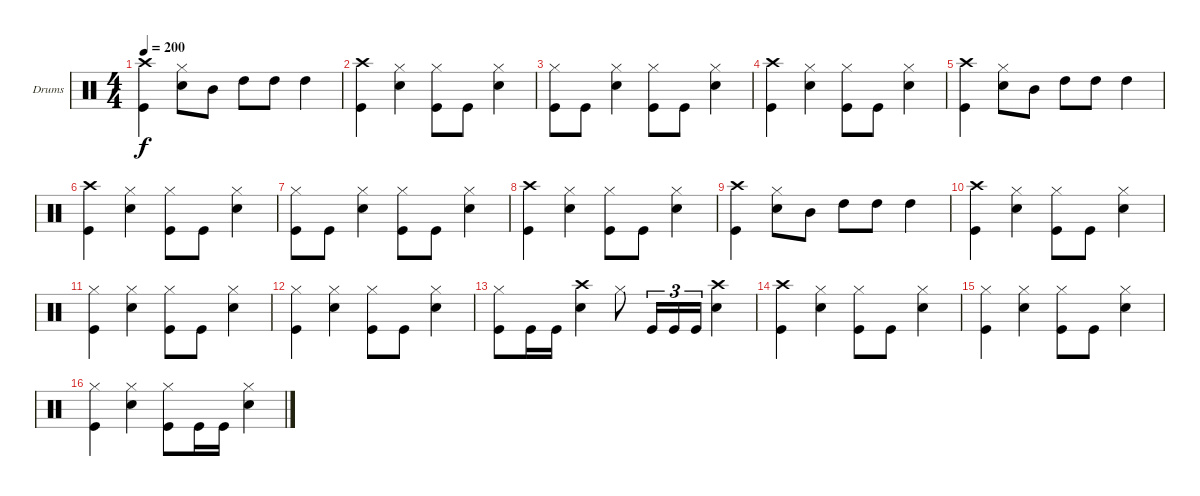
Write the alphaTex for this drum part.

\defaultSystemsLayout 4
\bracketExtendMode groupsimilarinstruments
\firstSystemTrackNameOrientation horizontal
\otherSystemsTrackNameOrientation horizontal
\track ("Drums" "Drums") {instrument percussion}
\staff {score}
\articulation defaults
\ts (4 4)
\tempo 200
\clef neutral
\ks c
("Kick (hit)" "Crash high (hit)").4{dy f} ("Snare (hit) 2" "Hi-Hat (closed)").8 "Mid Tom (hit)".8 "High Tom (hit)".8 "High Tom (hit)".8 "High Tom (hit)".4 |
("Kick (hit)" "Crash high (hit)").4 ("Snare (hit) 2" "Hi-Hat (closed)").4 ("Kick (hit)" "Hi-Hat (closed)").8 "Kick (hit)".8 ("Snare (hit) 2" "Hi-Hat (closed)").4 |
("Hi-Hat (closed)" "Kick (hit)").8 "Kick (hit)".8 ("Snare (hit) 2" "Hi-Hat (closed)").4 ("Hi-Hat (closed)" "Kick (hit)").8 "Kick (hit)".8 ("Snare (hit) 2" "Hi-Hat (closed)").4 |
("Kick (hit)" "Crash high (hit)").4 ("Snare (hit) 2" "Hi-Hat (closed)").4 ("Kick (hit)" "Hi-Hat (closed)").8 "Kick (hit)".8 ("Snare (hit) 2" "Hi-Hat (closed)").4 |
("Kick (hit)" "Crash high (hit)").4 ("Snare (hit) 2" "Hi-Hat (closed)").8 "Mid Tom (hit)".8 "High Tom (hit)".8 "High Tom (hit)".8 "High Tom (hit)".4 |
("Kick (hit)" "Crash high (hit)").4 ("Snare (hit) 2" "Hi-Hat (closed)").4 ("Kick (hit)" "Hi-Hat (closed)").8 "Kick (hit)".8 ("Snare (hit) 2" "Hi-Hat (closed)").4 |
("Hi-Hat (closed)" "Kick (hit)").8 "Kick (hit)".8 ("Snare (hit) 2" "Hi-Hat (closed)").4 ("Hi-Hat (closed)" "Kick (hit)").8 "Kick (hit)".8 ("Snare (hit) 2" "Hi-Hat (closed)").4 |
("Kick (hit)" "Crash high (hit)").4 ("Snare (hit) 2" "Hi-Hat (closed)").4 ("Kick (hit)" "Hi-Hat (closed)").8 "Kick (hit)".8 ("Snare (hit) 2" "Hi-Hat (closed)").4 |
("Kick (hit)" "Crash high (hit)").4 ("Snare (hit) 2" "Hi-Hat (closed)").8 "Mid Tom (hit)".8 "High Tom (hit)".8 "High Tom (hit)".8 "High Tom (hit)".4 |
("Kick (hit)" "Crash high (hit)").4 ("Snare (hit) 2" "Hi-Hat (closed)").4 ("Kick (hit)" "Hi-Hat (closed)").8 "Kick (hit)".8 ("Snare (hit) 2" "Hi-Hat (closed)").4 |
("Hi-Hat (closed)" "Kick (hit)").4 ("Snare (hit) 2" "Hi-Hat (closed)").4 ("Hi-Hat (closed)" "Kick (hit)").8 "Kick (hit)".8 ("Snare (hit) 2" "Hi-Hat (closed)").4 |
("Kick (hit)" "Hi-Hat (closed)").4 ("Snare (hit) 2" "Hi-Hat (closed)").4 ("Hi-Hat (closed)" "Kick (hit)").8 "Kick (hit)".8 ("Snare (hit) 2" "Hi-Hat (closed)").4 |
("Hi-Hat (closed)" "Kick (hit)").8 "Kick (hit)".16 "Kick (hit)".16 ("Snare (hit) 2" "Crash high (hit)").4 "Hi-Hat (closed)".8 "Kick (hit)".16{tu (3 2)} "Kick (hit)".16{tu (3 2)} "Kick (hit)".16{tu (3 2)} ("Snare (hit) 2" "Crash high (hit)").4 |
("Crash high (hit)" "Kick (hit)").4 ("Snare (hit) 2" "Hi-Hat (closed)").4 ("Kick (hit)" "Hi-Hat (closed)").8 "Kick (hit)".8 ("Snare (hit) 2" "Hi-Hat (closed)").4 |
("Kick (hit)" "Hi-Hat (closed)").4 ("Snare (hit) 2" "Hi-Hat (closed)").4 ("Hi-Hat (closed)" "Kick (hit)").8 "Kick (hit)".8 ("Snare (hit) 2" "Hi-Hat (closed)").4 |
("Kick (hit)" "Hi-Hat (closed)").4 ("Snare (hit) 2" "Hi-Hat (closed)").4 ("Hi-Hat (closed)" "Kick (hit)").8 "Kick (hit)".16 "Kick (hit)".16 ("Snare (hit) 2" "Hi-Hat (closed)").4
